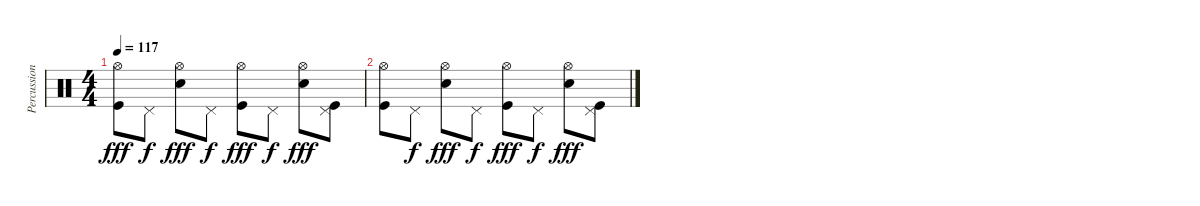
\track ("Percussion" "Percussion") {instrument percussion}
\staff {score}
\articulation defaults
\ts (4 4)
\tempo 117
\clef neutral
\ks c
("Kick (hit)" "Hi-Hat (open)").8{dy fff} "Pedal Hi-Hat (hit)".8{dy f} ("Snare (hit) 2" "Hi-Hat (open)").8{dy fff} "Pedal Hi-Hat (hit)".8{dy f} ("Kick (hit)" "Hi-Hat (open)").8{dy fff} "Pedal Hi-Hat (hit)".8{dy f} ("Snare (hit) 2" "Hi-Hat (open)").8{dy fff} ("Kick (hit)" "Pedal Hi-Hat (hit)").8 |
("Kick (hit)" "Hi-Hat (open)").8 "Pedal Hi-Hat (hit)".8{dy f} ("Snare (hit) 2" "Hi-Hat (open)").8{dy fff} "Pedal Hi-Hat (hit)".8{dy f} ("Kick (hit)" "Hi-Hat (open)").8{dy fff} "Pedal Hi-Hat (hit)".8{dy f} ("Snare (hit) 2" "Hi-Hat (open)").8{dy fff} ("Kick (hit)" "Pedal Hi-Hat (hit)").8
